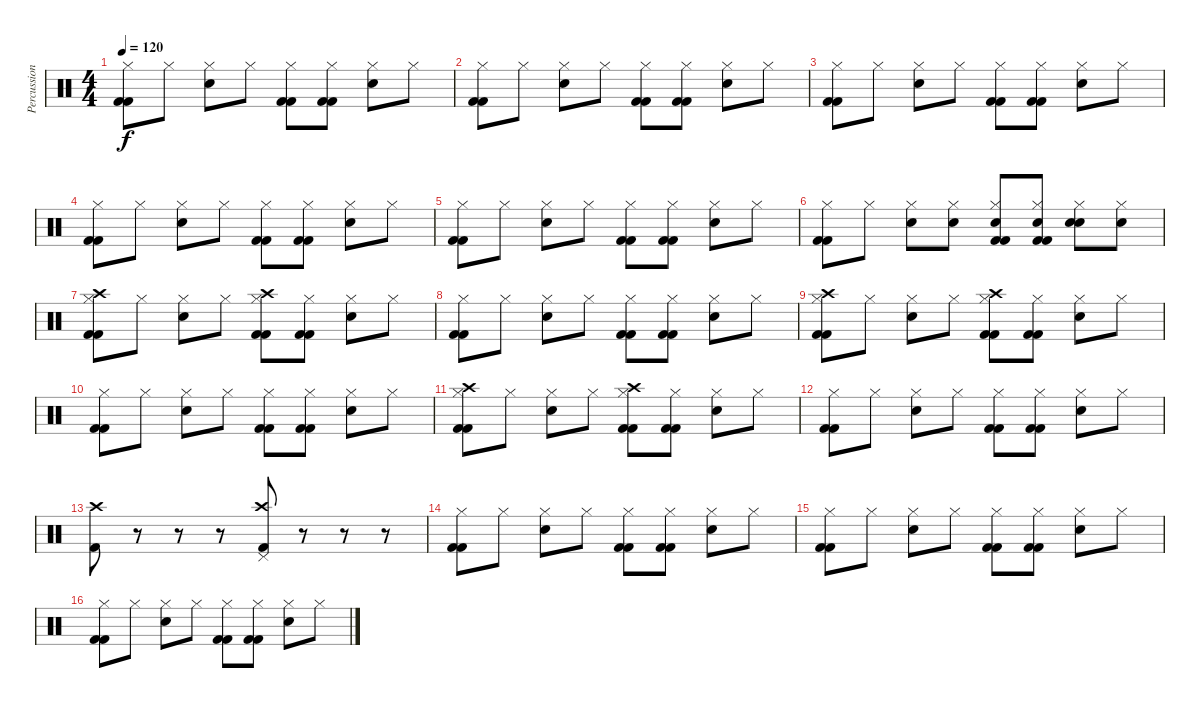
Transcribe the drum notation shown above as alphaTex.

\track ("Percussion" "Percussion") {instrument percussion}
\staff {score}
\articulation defaults
\ts (4 4)
\tempo 120
\clef neutral
\ks c
("Kick (hit) 2" "Hi-Hat (closed)" "Kick (hit) 2").8{dy f} "Hi-Hat (closed)".8 ("Snare (hit) 2" "Hi-Hat (closed)").8 "Hi-Hat (closed)".8 ("Kick (hit) 2" "Hi-Hat (closed)" "Kick (hit) 2").8 ("Kick (hit) 2" "Hi-Hat (closed)" "Kick (hit) 2").8 ("Snare (hit) 2" "Hi-Hat (closed)").8 "Hi-Hat (closed)".8 |
("Kick (hit) 2" "Hi-Hat (closed)" "Kick (hit) 2").8 "Hi-Hat (closed)".8 ("Snare (hit) 2" "Hi-Hat (closed)").8 "Hi-Hat (closed)".8 ("Kick (hit) 2" "Hi-Hat (closed)" "Kick (hit) 2").8 ("Kick (hit) 2" "Hi-Hat (closed)" "Kick (hit) 2").8 ("Snare (hit) 2" "Hi-Hat (closed)").8 "Hi-Hat (closed)".8 |
("Kick (hit) 2" "Hi-Hat (closed)" "Kick (hit) 2").8 "Hi-Hat (closed)".8 ("Snare (hit) 2" "Hi-Hat (closed)").8 "Hi-Hat (closed)".8 ("Kick (hit) 2" "Hi-Hat (closed)" "Kick (hit) 2").8 ("Kick (hit) 2" "Hi-Hat (closed)" "Kick (hit) 2").8 ("Snare (hit) 2" "Hi-Hat (closed)").8 "Hi-Hat (closed)".8 |
("Kick (hit) 2" "Hi-Hat (closed)" "Kick (hit) 2").8 "Hi-Hat (closed)".8 ("Snare (hit) 2" "Hi-Hat (closed)").8 "Hi-Hat (closed)".8 ("Kick (hit) 2" "Hi-Hat (closed)" "Kick (hit) 2").8 ("Kick (hit) 2" "Hi-Hat (closed)" "Kick (hit) 2").8 ("Snare (hit) 2" "Hi-Hat (closed)").8 "Hi-Hat (closed)".8 |
("Kick (hit) 2" "Hi-Hat (closed)" "Kick (hit) 2").8 "Hi-Hat (closed)".8 ("Snare (hit) 2" "Hi-Hat (closed)").8 "Hi-Hat (closed)".8 ("Kick (hit) 2" "Hi-Hat (closed)" "Kick (hit) 2").8 ("Kick (hit) 2" "Hi-Hat (closed)" "Kick (hit) 2").8 ("Snare (hit) 2" "Hi-Hat (closed)").8 "Hi-Hat (closed)".8 |
("Kick (hit) 2" "Hi-Hat (closed)" "Kick (hit) 2").8 "Hi-Hat (closed)".8 ("Snare (hit) 2" "Hi-Hat (closed)").8 ("Hi-Hat (closed)" "Snare (hit) 2").8 ("Kick (hit) 2" "Hi-Hat (closed)" "Kick (hit) 2" "Snare (hit) 2").8 ("Kick (hit) 2" "Hi-Hat (closed)" "Kick (hit) 2" "Snare (hit) 2").8 ("Snare (hit) 2" "Hi-Hat (closed)" "Snare (hit) 2").8 ("Hi-Hat (closed)" "Snare (hit) 2").8 |
("Kick (hit) 2" "Hi-Hat (closed)" "Kick (hit) 2" "Crash high (hit)").8 "Hi-Hat (closed)".8 ("Snare (hit) 2" "Hi-Hat (closed)").8 "Hi-Hat (closed)".8 ("Kick (hit) 2" "Hi-Hat (closed)" "Kick (hit) 2" "Crash high (hit)").8 ("Kick (hit) 2" "Hi-Hat (closed)" "Kick (hit) 2").8 ("Snare (hit) 2" "Hi-Hat (closed)").8 "Hi-Hat (closed)".8 |
("Kick (hit) 2" "Hi-Hat (closed)" "Kick (hit) 2").8 "Hi-Hat (closed)".8 ("Snare (hit) 2" "Hi-Hat (closed)").8 "Hi-Hat (closed)".8 ("Kick (hit) 2" "Hi-Hat (closed)" "Kick (hit) 2").8 ("Kick (hit) 2" "Hi-Hat (closed)" "Kick (hit) 2").8 ("Snare (hit) 2" "Hi-Hat (closed)").8 "Hi-Hat (closed)".8 |
("Kick (hit) 2" "Hi-Hat (closed)" "Kick (hit) 2" "Crash high (hit)").8 "Hi-Hat (closed)".8 ("Snare (hit) 2" "Hi-Hat (closed)").8 "Hi-Hat (closed)".8 ("Kick (hit) 2" "Hi-Hat (closed)" "Kick (hit) 2" "Crash high (hit)").8 ("Kick (hit) 2" "Hi-Hat (closed)" "Kick (hit) 2").8 ("Snare (hit) 2" "Hi-Hat (closed)").8 "Hi-Hat (closed)".8 |
("Kick (hit) 2" "Hi-Hat (closed)" "Kick (hit) 2").8 "Hi-Hat (closed)".8 ("Snare (hit) 2" "Hi-Hat (closed)").8 "Hi-Hat (closed)".8 ("Kick (hit) 2" "Hi-Hat (closed)" "Kick (hit) 2").8 ("Kick (hit) 2" "Hi-Hat (closed)" "Kick (hit) 2").8 ("Snare (hit) 2" "Hi-Hat (closed)").8 "Hi-Hat (closed)".8 |
("Kick (hit) 2" "Hi-Hat (closed)" "Kick (hit) 2" "Crash high (hit)").8 "Hi-Hat (closed)".8 ("Snare (hit) 2" "Hi-Hat (closed)").8 "Hi-Hat (closed)".8 ("Kick (hit) 2" "Hi-Hat (closed)" "Kick (hit) 2" "Crash high (hit)").8 ("Kick (hit) 2" "Hi-Hat (closed)" "Kick (hit) 2").8 ("Snare (hit) 2" "Hi-Hat (closed)").8 "Hi-Hat (closed)".8 |
("Kick (hit) 2" "Hi-Hat (closed)" "Kick (hit) 2").8 "Hi-Hat (closed)".8 ("Snare (hit) 2" "Hi-Hat (closed)").8 "Hi-Hat (closed)".8 ("Kick (hit) 2" "Hi-Hat (closed)" "Kick (hit) 2").8 ("Kick (hit) 2" "Hi-Hat (closed)" "Kick (hit) 2").8 ("Snare (hit) 2" "Hi-Hat (closed)").8 "Hi-Hat (closed)".8 |
("Crash high (hit)" "Kick (hit) 2").8 r.8 r.8 r.8 ("Crash high (hit)" "Pedal Hi-Hat (hit)" "Kick (hit) 2").8 r.8 r.8 r.8 |
("Kick (hit) 2" "Hi-Hat (closed)" "Kick (hit) 2").8 "Hi-Hat (closed)".8 ("Snare (hit) 2" "Hi-Hat (closed)").8 "Hi-Hat (closed)".8 ("Kick (hit) 2" "Hi-Hat (closed)" "Kick (hit) 2").8 ("Kick (hit) 2" "Hi-Hat (closed)" "Kick (hit) 2").8 ("Snare (hit) 2" "Hi-Hat (closed)").8 "Hi-Hat (closed)".8 |
("Kick (hit) 2" "Hi-Hat (closed)" "Kick (hit) 2").8 "Hi-Hat (closed)".8 ("Snare (hit) 2" "Hi-Hat (closed)").8 "Hi-Hat (closed)".8 ("Kick (hit) 2" "Hi-Hat (closed)" "Kick (hit) 2").8 ("Kick (hit) 2" "Hi-Hat (closed)" "Kick (hit) 2").8 ("Snare (hit) 2" "Hi-Hat (closed)").8 "Hi-Hat (closed)".8 |
("Kick (hit) 2" "Hi-Hat (closed)" "Kick (hit) 2").8 "Hi-Hat (closed)".8 ("Snare (hit) 2" "Hi-Hat (closed)").8 "Hi-Hat (closed)".8 ("Kick (hit) 2" "Hi-Hat (closed)" "Kick (hit) 2").8 ("Kick (hit) 2" "Hi-Hat (closed)" "Kick (hit) 2").8 ("Snare (hit) 2" "Hi-Hat (closed)").8 "Hi-Hat (closed)".8
